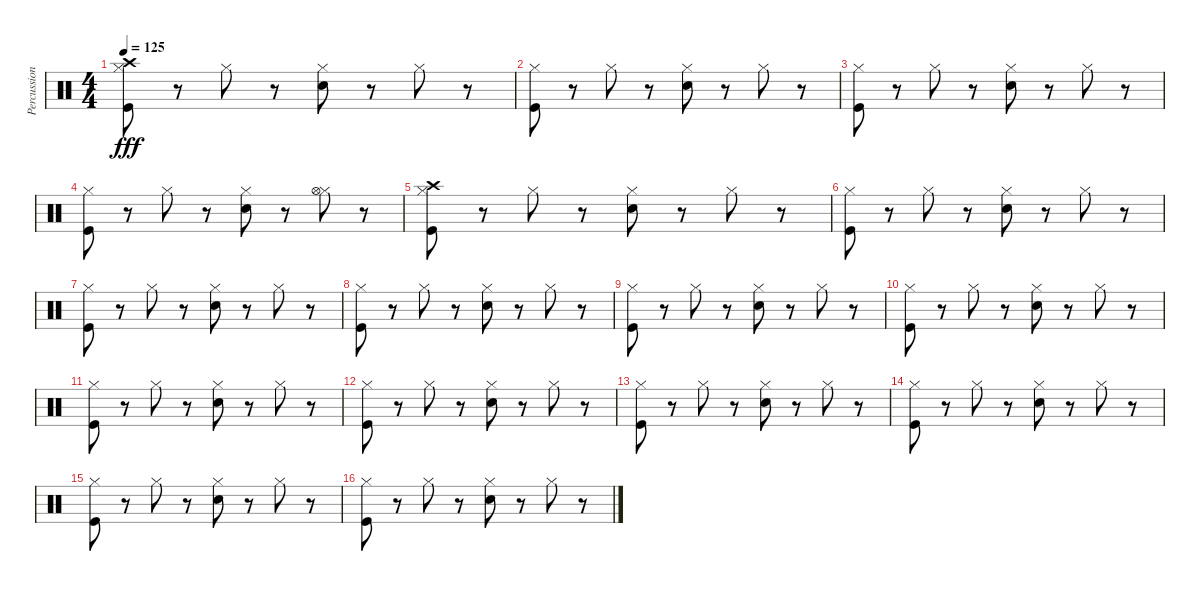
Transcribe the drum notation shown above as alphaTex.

\track ("Percussion" "Percussion") {instrument percussion}
\staff {score}
\articulation defaults
\ts (4 4)
\tempo 125
\clef neutral
\ks c
("Hi-Hat (closed)" "Crash high (hit)" "Kick (hit)").8{dy fff} r.8 "Hi-Hat (closed)".8 r.8 ("Hi-Hat (closed)" "Snare (hit) 2").8 r.8 "Hi-Hat (closed)".8 r.8 |
("Hi-Hat (closed)" "Kick (hit)").8 r.8 "Hi-Hat (closed)".8 r.8 ("Hi-Hat (closed)" "Snare (hit) 2").8 r.8 "Hi-Hat (closed)".8 r.8 |
("Hi-Hat (closed)" "Kick (hit)").8 r.8 "Hi-Hat (closed)".8 r.8 ("Hi-Hat (closed)" "Snare (hit) 2").8 r.8 "Hi-Hat (closed)".8 r.8 |
("Hi-Hat (closed)" "Kick (hit)").8 r.8 "Hi-Hat (closed)".8 r.8 ("Hi-Hat (closed)" "Snare (hit) 2").8 r.8 ("Hi-Hat (closed)" "Hi-Hat (open)").8 r.8 |
("Hi-Hat (closed)" "Crash high (hit)" "Kick (hit)").8 r.8 "Hi-Hat (closed)".8 r.8 ("Hi-Hat (closed)" "Snare (hit) 2").8 r.8 "Hi-Hat (closed)".8 r.8 |
("Hi-Hat (closed)" "Kick (hit)").8 r.8 "Hi-Hat (closed)".8 r.8 ("Hi-Hat (closed)" "Snare (hit) 2").8 r.8 "Hi-Hat (closed)".8 r.8 |
("Hi-Hat (closed)" "Kick (hit)").8 r.8 "Hi-Hat (closed)".8 r.8 ("Hi-Hat (closed)" "Snare (hit) 2").8 r.8 "Hi-Hat (closed)".8 r.8 |
("Hi-Hat (closed)" "Kick (hit)").8 r.8 "Hi-Hat (closed)".8 r.8 ("Hi-Hat (closed)" "Snare (hit) 2").8 r.8 "Hi-Hat (closed)".8 r.8 |
("Hi-Hat (closed)" "Kick (hit)").8 r.8 "Hi-Hat (closed)".8 r.8 ("Hi-Hat (closed)" "Snare (hit) 2").8 r.8 "Hi-Hat (closed)".8 r.8 |
("Hi-Hat (closed)" "Kick (hit)").8 r.8 "Hi-Hat (closed)".8 r.8 ("Hi-Hat (closed)" "Snare (hit) 2").8 r.8 "Hi-Hat (closed)".8 r.8 |
("Hi-Hat (closed)" "Kick (hit)").8 r.8 "Hi-Hat (closed)".8 r.8 ("Hi-Hat (closed)" "Snare (hit) 2").8 r.8 "Hi-Hat (closed)".8 r.8 |
("Hi-Hat (closed)" "Kick (hit)").8 r.8 "Hi-Hat (closed)".8 r.8 ("Hi-Hat (closed)" "Snare (hit) 2").8 r.8 "Hi-Hat (closed)".8 r.8 |
("Hi-Hat (closed)" "Kick (hit)").8 r.8 "Hi-Hat (closed)".8 r.8 ("Hi-Hat (closed)" "Snare (hit) 2").8 r.8 "Hi-Hat (closed)".8 r.8 |
("Hi-Hat (closed)" "Kick (hit)").8 r.8 "Hi-Hat (closed)".8 r.8 ("Hi-Hat (closed)" "Snare (hit) 2").8 r.8 "Hi-Hat (closed)".8 r.8 |
("Hi-Hat (closed)" "Kick (hit)").8 r.8 "Hi-Hat (closed)".8 r.8 ("Hi-Hat (closed)" "Snare (hit) 2").8 r.8 "Hi-Hat (closed)".8 r.8 |
("Hi-Hat (closed)" "Kick (hit)").8 r.8 "Hi-Hat (closed)".8 r.8 ("Hi-Hat (closed)" "Snare (hit) 2").8 r.8 "Hi-Hat (closed)".8 r.8
